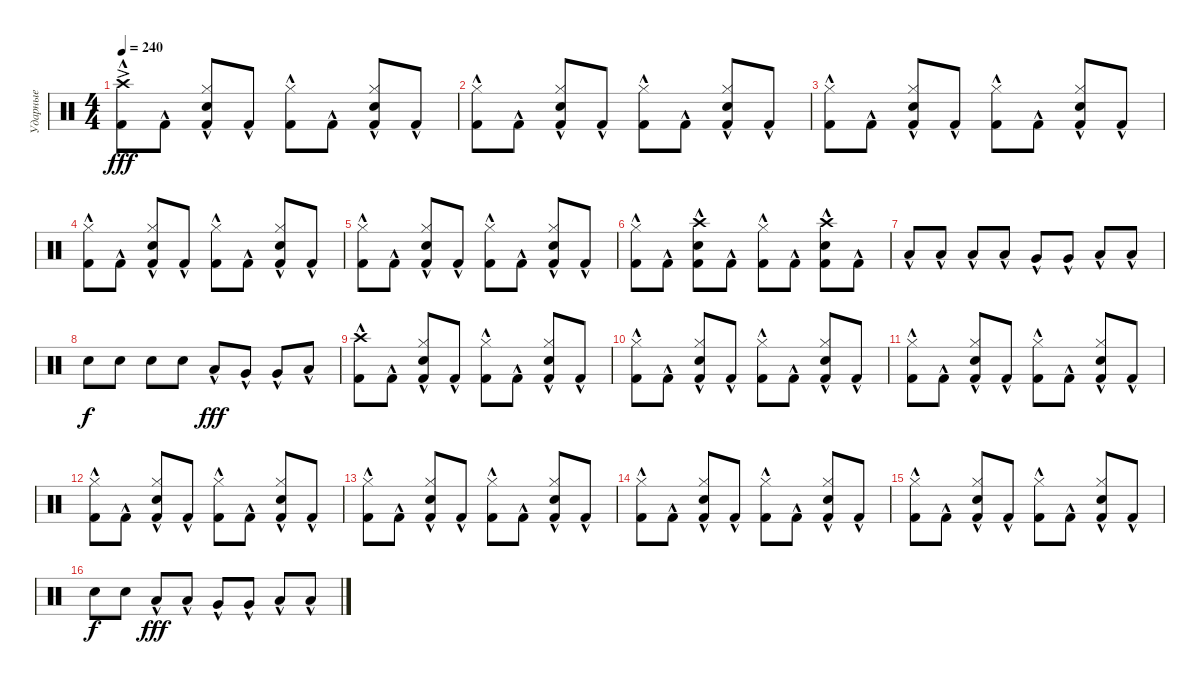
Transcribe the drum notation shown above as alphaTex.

\track ("Ударные" "Ударные") {instrument percussion}
\staff {score}
\articulation defaults
\ts (4 4)
\tempo 240
\clef neutral
\ks c
("Crash high (hit)"{ac} "Kick (hit) 2"{hac}).8{dy fff} "Kick (hit) 2"{hac}.8 ("Hi-Hat (closed)" "Snare (hit) 2" "Kick (hit) 2"{hac}).8 "Kick (hit) 2"{hac}.8 ("Hi-Hat (closed)" "Kick (hit) 2"{hac}).8 "Kick (hit) 2"{hac}.8 ("Hi-Hat (closed)" "Snare (hit) 2" "Kick (hit) 2"{hac}).8 "Kick (hit) 2"{hac}.8 |
("Hi-Hat (closed)" "Kick (hit) 2"{hac}).8 "Kick (hit) 2"{hac}.8 ("Hi-Hat (closed)" "Snare (hit) 2" "Kick (hit) 2"{hac}).8 "Kick (hit) 2"{hac}.8 ("Hi-Hat (closed)" "Kick (hit) 2"{hac}).8 "Kick (hit) 2"{hac}.8 ("Hi-Hat (closed)" "Snare (hit) 2" "Kick (hit) 2"{hac}).8 "Kick (hit) 2"{hac}.8 |
("Hi-Hat (closed)" "Kick (hit) 2"{hac}).8 "Kick (hit) 2"{hac}.8 ("Hi-Hat (closed)" "Snare (hit) 2" "Kick (hit) 2"{hac}).8 "Kick (hit) 2"{hac}.8 ("Hi-Hat (closed)" "Kick (hit) 2"{hac}).8 "Kick (hit) 2"{hac}.8 ("Hi-Hat (closed)" "Snare (hit) 2" "Kick (hit) 2"{hac}).8 "Kick (hit) 2"{hac}.8 |
("Hi-Hat (closed)" "Kick (hit) 2"{hac}).8 "Kick (hit) 2"{hac}.8 ("Hi-Hat (closed)" "Snare (hit) 2" "Kick (hit) 2"{hac}).8 "Kick (hit) 2"{hac}.8 ("Hi-Hat (closed)" "Kick (hit) 2"{hac}).8 "Kick (hit) 2"{hac}.8 ("Hi-Hat (closed)" "Snare (hit) 2" "Kick (hit) 2"{hac}).8 "Kick (hit) 2"{hac}.8 |
("Hi-Hat (closed)" "Kick (hit) 2"{hac}).8 "Kick (hit) 2"{hac}.8 ("Hi-Hat (closed)" "Snare (hit) 2" "Kick (hit) 2"{hac}).8 "Kick (hit) 2"{hac}.8 ("Hi-Hat (closed)" "Kick (hit) 2"{hac}).8 "Kick (hit) 2"{hac}.8 ("Hi-Hat (closed)" "Snare (hit) 2" "Kick (hit) 2"{hac}).8 "Kick (hit) 2"{hac}.8 |
("Hi-Hat (closed)" "Kick (hit) 2"{hac}).8 "Kick (hit) 2"{hac}.8 ("Crash high (hit)" "Snare (hit) 2" "Kick (hit) 2"{hac}).8 "Kick (hit) 2"{hac}.8 ("Hi-Hat (closed)" "Kick (hit) 2"{hac}).8 "Kick (hit) 2"{hac}.8 ("Crash high (hit)" "Snare (hit) 2" "Kick (hit) 2"{hac}).8 "Kick (hit) 2"{hac}.8 |
"Low Tom (hit)"{hac}.8 "Low Tom (hit)"{hac}.8 "Low Tom (hit)"{hac}.8 "Low Tom (hit)"{hac}.8 "Very Low Tom (hit)"{hac}.8 "Very Low Tom (hit)"{hac}.8 "Low Floor Tom (hit)"{hac}.8 "Low Floor Tom (hit)"{hac}.8 |
"Snare (hit) 2".8{dy f} "Snare (hit) 2".8 "Snare (hit) 2".8 "Snare (hit) 2".8 "Low Tom (hit)"{hac}.8{dy fff} "Very Low Tom (hit)"{hac}.8 "Very Low Tom (hit)"{hac}.8 "Low Floor Tom (hit)"{hac}.8 |
("Crash high (hit)"{hac} "Kick (hit) 2"{hac}).8 "Kick (hit) 2"{hac}.8 ("Hi-Hat (closed)" "Snare (hit) 2" "Kick (hit) 2"{hac}).8 "Kick (hit) 2"{hac}.8 ("Hi-Hat (closed)" "Kick (hit) 2"{hac}).8 "Kick (hit) 2"{hac}.8 ("Hi-Hat (closed)" "Snare (hit) 2" "Kick (hit) 2"{hac}).8 "Kick (hit) 2"{hac}.8 |
("Hi-Hat (closed)" "Kick (hit) 2"{hac}).8 "Kick (hit) 2"{hac}.8 ("Hi-Hat (closed)" "Snare (hit) 2" "Kick (hit) 2"{hac}).8 "Kick (hit) 2"{hac}.8 ("Hi-Hat (closed)" "Kick (hit) 2"{hac}).8 "Kick (hit) 2"{hac}.8 ("Hi-Hat (closed)" "Snare (hit) 2" "Kick (hit) 2"{hac}).8 "Kick (hit) 2"{hac}.8 |
("Hi-Hat (closed)" "Kick (hit) 2"{hac}).8 "Kick (hit) 2"{hac}.8 ("Hi-Hat (closed)" "Snare (hit) 2" "Kick (hit) 2"{hac}).8 "Kick (hit) 2"{hac}.8 ("Hi-Hat (closed)" "Kick (hit) 2"{hac}).8 "Kick (hit) 2"{hac}.8 ("Hi-Hat (closed)" "Snare (hit) 2" "Kick (hit) 2"{hac}).8 "Kick (hit) 2"{hac}.8 |
("Hi-Hat (closed)" "Kick (hit) 2"{hac}).8 "Kick (hit) 2"{hac}.8 ("Hi-Hat (closed)" "Snare (hit) 2" "Kick (hit) 2"{hac}).8 "Kick (hit) 2"{hac}.8 ("Hi-Hat (closed)" "Kick (hit) 2"{hac}).8 "Kick (hit) 2"{hac}.8 ("Hi-Hat (closed)" "Snare (hit) 2" "Kick (hit) 2"{hac}).8 "Kick (hit) 2"{hac}.8 |
("Hi-Hat (closed)" "Kick (hit) 2"{hac}).8 "Kick (hit) 2"{hac}.8 ("Hi-Hat (closed)" "Snare (hit) 2" "Kick (hit) 2"{hac}).8 "Kick (hit) 2"{hac}.8 ("Hi-Hat (closed)" "Kick (hit) 2"{hac}).8 "Kick (hit) 2"{hac}.8 ("Hi-Hat (closed)" "Snare (hit) 2" "Kick (hit) 2"{hac}).8 "Kick (hit) 2"{hac}.8 |
("Hi-Hat (closed)" "Kick (hit) 2"{hac}).8 "Kick (hit) 2"{hac}.8 ("Hi-Hat (closed)" "Snare (hit) 2" "Kick (hit) 2"{hac}).8 "Kick (hit) 2"{hac}.8 ("Hi-Hat (closed)" "Kick (hit) 2"{hac}).8 "Kick (hit) 2"{hac}.8 ("Hi-Hat (closed)" "Snare (hit) 2" "Kick (hit) 2"{hac}).8 "Kick (hit) 2"{hac}.8 |
("Hi-Hat (closed)" "Kick (hit) 2"{hac}).8 "Kick (hit) 2"{hac}.8 ("Hi-Hat (closed)" "Snare (hit) 2" "Kick (hit) 2"{hac}).8 "Kick (hit) 2"{hac}.8 ("Hi-Hat (closed)" "Kick (hit) 2"{hac}).8 "Kick (hit) 2"{hac}.8 ("Hi-Hat (closed)" "Snare (hit) 2" "Kick (hit) 2"{hac}).8 "Kick (hit) 2"{hac}.8 |
"Snare (hit) 2".8{dy f} "Snare (hit) 2".8 "Low Tom (hit)"{hac}.8{dy fff} "Low Tom (hit)"{hac}.8 "Very Low Tom (hit)"{hac}.8 "Very Low Tom (hit)"{hac}.8 "Low Floor Tom (hit)"{hac}.8 "Low Floor Tom (hit)"{hac}.8
